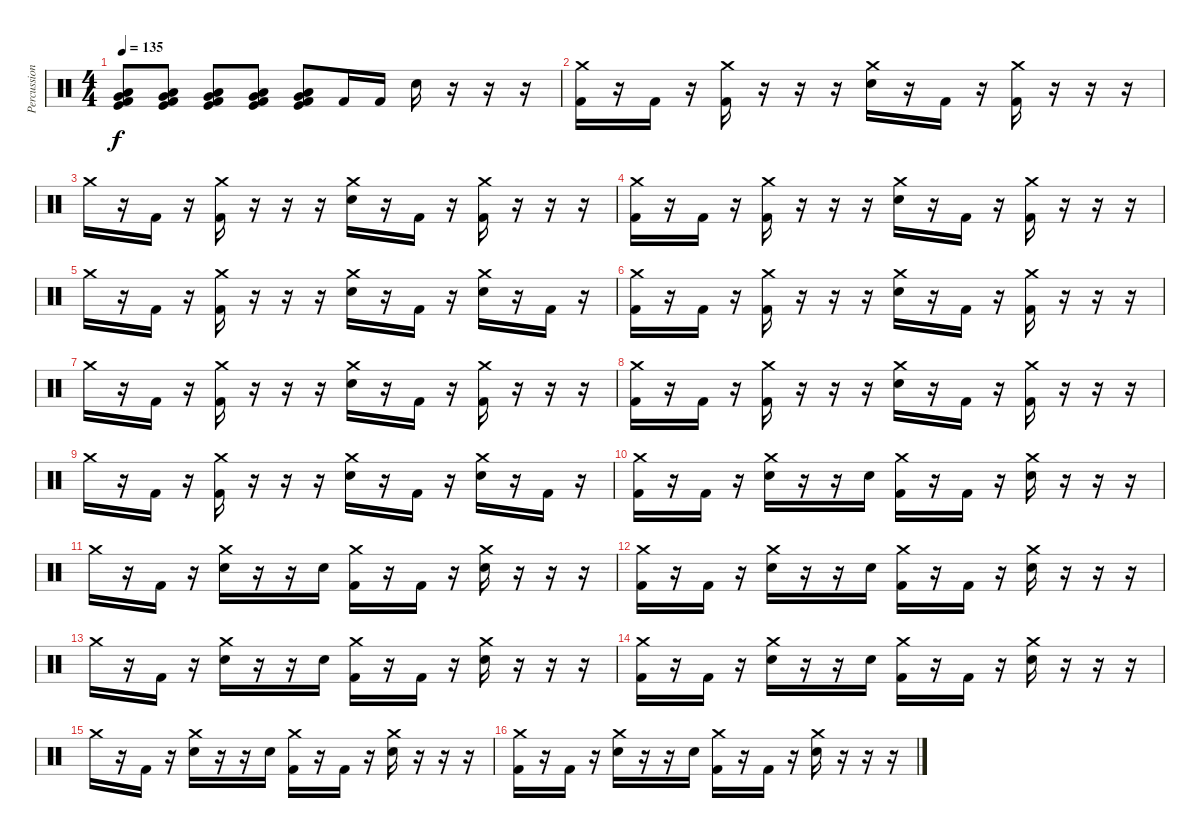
\track ("Percussion" "Percussion") {instrument percussion}
\staff {score}
\articulation defaults
\ts (4 4)
\tempo 135
\clef neutral
\ks c
("Low Tom (hit)" "Very Low Tom (hit)" "Kick (hit) 2" "Kick (hit)").8{dy f} ("Low Tom (hit)" "Very Low Tom (hit)" "Kick (hit) 2" "Kick (hit)").8 ("Low Tom (hit)" "Very Low Tom (hit)" "Kick (hit) 2" "Kick (hit)").8 ("Low Tom (hit)" "Very Low Tom (hit)" "Kick (hit) 2" "Kick (hit)").8 ("Low Tom (hit)" "Very Low Tom (hit)" "Kick (hit) 2" "Kick (hit)").8 "Kick (hit) 2".16 "Kick (hit) 2".16 "Electric Snare (hit)".16 r.16 r.16 r.16 |
("Crash medium (hit)" "Kick (hit) 2").16 r.16 "Kick (hit) 2".16 r.16 ("Crash medium (hit)" "Kick (hit) 2").16 r.16 r.16 r.16 ("Crash medium (hit)" "Electric Snare (hit)").16 r.16 "Kick (hit) 2".16 r.16 ("Crash medium (hit)" "Kick (hit) 2").16 r.16 r.16 r.16 |
"Crash medium (hit)".16 r.16 "Kick (hit) 2".16 r.16 ("Crash medium (hit)" "Kick (hit) 2").16 r.16 r.16 r.16 ("Crash medium (hit)" "Electric Snare (hit)").16 r.16 "Kick (hit) 2".16 r.16 ("Crash medium (hit)" "Kick (hit) 2").16 r.16 r.16 r.16 |
("Crash medium (hit)" "Kick (hit) 2").16 r.16 "Kick (hit) 2".16 r.16 ("Crash medium (hit)" "Kick (hit) 2").16 r.16 r.16 r.16 ("Crash medium (hit)" "Electric Snare (hit)").16 r.16 "Kick (hit) 2".16 r.16 ("Crash medium (hit)" "Kick (hit) 2").16 r.16 r.16 r.16 |
"Crash medium (hit)".16 r.16 "Kick (hit) 2".16 r.16 ("Crash medium (hit)" "Kick (hit) 2").16 r.16 r.16 r.16 ("Crash medium (hit)" "Electric Snare (hit)").16 r.16 "Kick (hit) 2".16 r.16 ("Crash medium (hit)" "Electric Snare (hit)").16 r.16 "Kick (hit) 2".16 r.16 |
("Crash medium (hit)" "Kick (hit) 2").16 r.16 "Kick (hit) 2".16 r.16 ("Crash medium (hit)" "Kick (hit) 2").16 r.16 r.16 r.16 ("Crash medium (hit)" "Electric Snare (hit)").16 r.16 "Kick (hit) 2".16 r.16 ("Crash medium (hit)" "Kick (hit) 2").16 r.16 r.16 r.16 |
"Crash medium (hit)".16 r.16 "Kick (hit) 2".16 r.16 ("Crash medium (hit)" "Kick (hit) 2").16 r.16 r.16 r.16 ("Crash medium (hit)" "Electric Snare (hit)").16 r.16 "Kick (hit) 2".16 r.16 ("Crash medium (hit)" "Kick (hit) 2").16 r.16 r.16 r.16 |
("Crash medium (hit)" "Kick (hit) 2").16 r.16 "Kick (hit) 2".16 r.16 ("Crash medium (hit)" "Kick (hit) 2").16 r.16 r.16 r.16 ("Crash medium (hit)" "Electric Snare (hit)").16 r.16 "Kick (hit) 2".16 r.16 ("Crash medium (hit)" "Kick (hit) 2").16 r.16 r.16 r.16 |
"Crash medium (hit)".16 r.16 "Kick (hit) 2".16 r.16 ("Crash medium (hit)" "Kick (hit) 2").16 r.16 r.16 r.16 ("Crash medium (hit)" "Electric Snare (hit)").16 r.16 "Kick (hit) 2".16 r.16 ("Crash medium (hit)" "Electric Snare (hit)").16 r.16 "Kick (hit) 2".16 r.16 |
("Crash medium (hit)" "Kick (hit) 2").16 r.16 "Kick (hit) 2".16 r.16 ("Crash medium (hit)" "Electric Snare (hit)").16 r.16 r.16 "Electric Snare (hit)".16 ("Crash medium (hit)" "Kick (hit) 2").16 r.16 "Kick (hit) 2".16 r.16 ("Crash medium (hit)" "Electric Snare (hit)").16 r.16 r.16 r.16 |
"Crash medium (hit)".16 r.16 "Kick (hit) 2".16 r.16 ("Crash medium (hit)" "Electric Snare (hit)").16 r.16 r.16 "Electric Snare (hit)".16 ("Crash medium (hit)" "Kick (hit) 2").16 r.16 "Kick (hit) 2".16 r.16 ("Crash medium (hit)" "Electric Snare (hit)").16 r.16 r.16 r.16 |
("Crash medium (hit)" "Kick (hit) 2").16 r.16 "Kick (hit) 2".16 r.16 ("Crash medium (hit)" "Electric Snare (hit)").16 r.16 r.16 "Electric Snare (hit)".16 ("Crash medium (hit)" "Kick (hit) 2").16 r.16 "Kick (hit) 2".16 r.16 ("Crash medium (hit)" "Electric Snare (hit)").16 r.16 r.16 r.16 |
"Crash medium (hit)".16 r.16 "Kick (hit) 2".16 r.16 ("Crash medium (hit)" "Electric Snare (hit)").16 r.16 r.16 "Electric Snare (hit)".16 ("Crash medium (hit)" "Kick (hit) 2").16 r.16 "Kick (hit) 2".16 r.16 ("Crash medium (hit)" "Electric Snare (hit)").16 r.16 r.16 r.16 |
("Crash medium (hit)" "Kick (hit) 2").16 r.16 "Kick (hit) 2".16 r.16 ("Crash medium (hit)" "Electric Snare (hit)").16 r.16 r.16 "Electric Snare (hit)".16 ("Crash medium (hit)" "Kick (hit) 2").16 r.16 "Kick (hit) 2".16 r.16 ("Crash medium (hit)" "Electric Snare (hit)").16 r.16 r.16 r.16 |
"Crash medium (hit)".16 r.16 "Kick (hit) 2".16 r.16 ("Crash medium (hit)" "Electric Snare (hit)").16 r.16 r.16 "Electric Snare (hit)".16 ("Crash medium (hit)" "Kick (hit) 2").16 r.16 "Kick (hit) 2".16 r.16 ("Crash medium (hit)" "Electric Snare (hit)").16 r.16 r.16 r.16 |
("Crash medium (hit)" "Kick (hit) 2").16 r.16 "Kick (hit) 2".16 r.16 ("Crash medium (hit)" "Electric Snare (hit)").16 r.16 r.16 "Electric Snare (hit)".16 ("Crash medium (hit)" "Kick (hit) 2").16 r.16 "Kick (hit) 2".16 r.16 ("Crash medium (hit)" "Electric Snare (hit)").16 r.16 r.16 r.16
